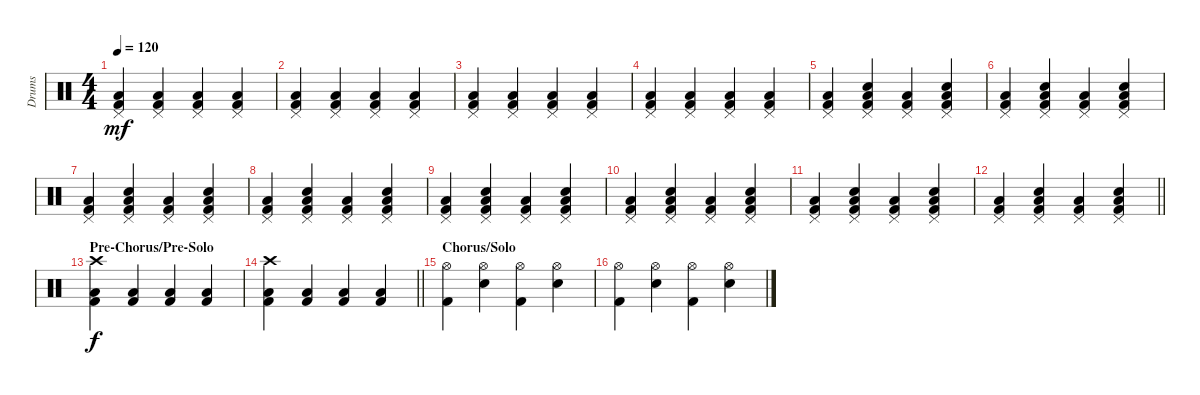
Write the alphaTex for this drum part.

\track ("Drums" "Drums") {instrument percussion}
\staff {score}
\articulation defaults
\ts (4 4)
\tempo 120
\clef neutral
\ks c
("Pedal Hi-Hat (hit)" "Low Floor Tom (hit)" "Kick (hit) 2").4{dy mf} ("Pedal Hi-Hat (hit)" "Low Floor Tom (hit)" "Kick (hit) 2").4 ("Pedal Hi-Hat (hit)" "Low Floor Tom (hit)" "Kick (hit) 2").4 ("Pedal Hi-Hat (hit)" "Low Floor Tom (hit)" "Kick (hit) 2").4 |
("Pedal Hi-Hat (hit)" "Low Floor Tom (hit)" "Kick (hit) 2").4 ("Pedal Hi-Hat (hit)" "Low Floor Tom (hit)" "Kick (hit) 2").4 ("Pedal Hi-Hat (hit)" "Low Floor Tom (hit)" "Kick (hit) 2").4 ("Pedal Hi-Hat (hit)" "Low Floor Tom (hit)" "Kick (hit) 2").4 |
("Pedal Hi-Hat (hit)" "Low Floor Tom (hit)" "Kick (hit) 2").4 ("Pedal Hi-Hat (hit)" "Low Floor Tom (hit)" "Kick (hit) 2").4 ("Pedal Hi-Hat (hit)" "Low Floor Tom (hit)" "Kick (hit) 2").4 ("Pedal Hi-Hat (hit)" "Low Floor Tom (hit)" "Kick (hit) 2").4 |
("Pedal Hi-Hat (hit)" "Low Floor Tom (hit)" "Kick (hit) 2").4 ("Pedal Hi-Hat (hit)" "Low Floor Tom (hit)" "Kick (hit) 2").4 ("Pedal Hi-Hat (hit)" "Low Floor Tom (hit)" "Kick (hit) 2").4 ("Pedal Hi-Hat (hit)" "Low Floor Tom (hit)" "Kick (hit) 2").4 |
("Pedal Hi-Hat (hit)" "Low Floor Tom (hit)" "Kick (hit) 2").4 ("Pedal Hi-Hat (hit)" "Snare (hit) 2" "Low Floor Tom (hit)" "Kick (hit) 2").4 ("Pedal Hi-Hat (hit)" "Low Floor Tom (hit)" "Kick (hit) 2").4 ("Pedal Hi-Hat (hit)" "Snare (hit) 2" "Low Floor Tom (hit)" "Kick (hit) 2").4 |
("Pedal Hi-Hat (hit)" "Low Floor Tom (hit)" "Kick (hit) 2").4 ("Pedal Hi-Hat (hit)" "Snare (hit) 2" "Low Floor Tom (hit)" "Kick (hit) 2").4 ("Pedal Hi-Hat (hit)" "Low Floor Tom (hit)" "Kick (hit) 2").4 ("Pedal Hi-Hat (hit)" "Snare (hit) 2" "Low Floor Tom (hit)" "Kick (hit) 2").4 |
("Pedal Hi-Hat (hit)" "Low Floor Tom (hit)" "Kick (hit) 2").4 ("Pedal Hi-Hat (hit)" "Snare (hit) 2" "Low Floor Tom (hit)" "Kick (hit) 2").4 ("Pedal Hi-Hat (hit)" "Low Floor Tom (hit)" "Kick (hit) 2").4 ("Pedal Hi-Hat (hit)" "Snare (hit) 2" "Low Floor Tom (hit)" "Kick (hit) 2").4 |
("Pedal Hi-Hat (hit)" "Low Floor Tom (hit)" "Kick (hit) 2").4 ("Pedal Hi-Hat (hit)" "Snare (hit) 2" "Low Floor Tom (hit)" "Kick (hit) 2").4 ("Pedal Hi-Hat (hit)" "Low Floor Tom (hit)" "Kick (hit) 2").4 ("Pedal Hi-Hat (hit)" "Snare (hit) 2" "Low Floor Tom (hit)" "Kick (hit) 2").4 |
("Pedal Hi-Hat (hit)" "Low Floor Tom (hit)" "Kick (hit) 2").4 ("Pedal Hi-Hat (hit)" "Snare (hit) 2" "Low Floor Tom (hit)" "Kick (hit) 2").4 ("Pedal Hi-Hat (hit)" "Low Floor Tom (hit)" "Kick (hit) 2").4 ("Pedal Hi-Hat (hit)" "Snare (hit) 2" "Low Floor Tom (hit)" "Kick (hit) 2").4 |
("Pedal Hi-Hat (hit)" "Low Floor Tom (hit)" "Kick (hit) 2").4 ("Pedal Hi-Hat (hit)" "Snare (hit) 2" "Low Floor Tom (hit)" "Kick (hit) 2").4 ("Pedal Hi-Hat (hit)" "Low Floor Tom (hit)" "Kick (hit) 2").4 ("Pedal Hi-Hat (hit)" "Snare (hit) 2" "Low Floor Tom (hit)" "Kick (hit) 2").4 |
("Pedal Hi-Hat (hit)" "Low Floor Tom (hit)" "Kick (hit) 2").4 ("Pedal Hi-Hat (hit)" "Snare (hit) 2" "Low Floor Tom (hit)" "Kick (hit) 2").4 ("Pedal Hi-Hat (hit)" "Low Floor Tom (hit)" "Kick (hit) 2").4 ("Pedal Hi-Hat (hit)" "Snare (hit) 2" "Low Floor Tom (hit)" "Kick (hit) 2").4 |
\barLineRight lightlight
("Pedal Hi-Hat (hit)" "Low Floor Tom (hit)" "Kick (hit) 2").4 ("Pedal Hi-Hat (hit)" "Snare (hit) 2" "Low Floor Tom (hit)" "Kick (hit) 2").4 ("Pedal Hi-Hat (hit)" "Low Floor Tom (hit)" "Kick (hit) 2").4 ("Pedal Hi-Hat (hit)" "Snare (hit) 2" "Low Floor Tom (hit)" "Kick (hit) 2").4 |
\section ("" "Pre-Chorus/Pre-Solo")
("Crash high (hit)" "Low Floor Tom (hit)" "Kick (hit) 2").4{dy f} ("Low Floor Tom (hit)" "Kick (hit) 2").4 ("Low Floor Tom (hit)" "Kick (hit) 2").4 ("Low Floor Tom (hit)" "Kick (hit) 2").4 |
\barLineRight lightlight
("Crash high (hit)" "Low Floor Tom (hit)" "Kick (hit) 2").4 ("Low Floor Tom (hit)" "Kick (hit) 2").4 ("Low Floor Tom (hit)" "Kick (hit) 2").4 ("Low Floor Tom (hit)" "Kick (hit) 2").4 |
\section ("" "Chorus/Solo")
("Hi-Hat (open)" "Kick (hit) 2").4 ("Hi-Hat (open)" "Snare (hit) 2").4 ("Hi-Hat (open)" "Kick (hit) 2").4 ("Hi-Hat (open)" "Snare (hit) 2").4 |
("Hi-Hat (open)" "Kick (hit) 2").4 ("Hi-Hat (open)" "Snare (hit) 2").4 ("Hi-Hat (open)" "Kick (hit) 2").4 ("Hi-Hat (open)" "Snare (hit) 2").4
